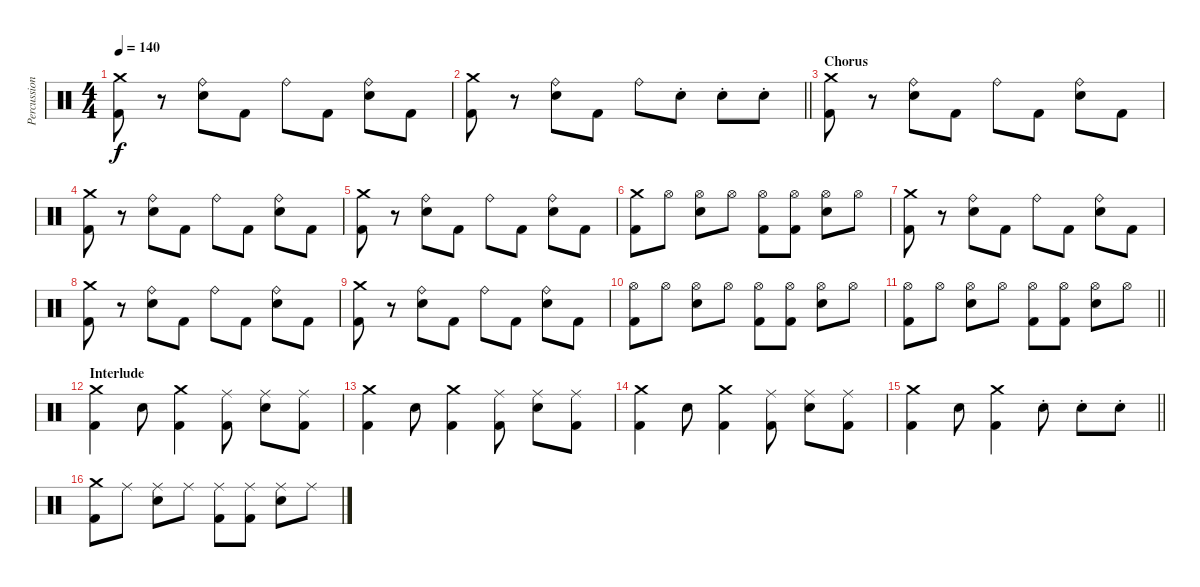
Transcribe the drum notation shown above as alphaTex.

\track ("Percussion" "Percussion") {instrument percussion}
\staff {score}
\articulation defaults
\ts (4 4)
\tempo 140
\clef neutral
\ks c
("Crash medium (hit)" "Kick (hit) 2").8{dy f} r.8 ("Ride (bell)" "Snare (hit) 2").8 "Kick (hit) 2".8 "Ride (bell)".8 "Kick (hit) 2".8 ("Ride (bell)" "Snare (hit) 2").8 "Kick (hit) 2".8 |
\barLineRight lightlight
("Crash medium (hit)" "Kick (hit) 2").8 r.8 ("Ride (bell)" "Snare (hit) 2").8 "Kick (hit) 2".8 "Ride (bell)".8 "Snare (hit) 2"{st}.8 "Snare (hit) 2"{st}.8 "Snare (hit) 2"{st}.8 |
\section ("" "Chorus")
("Crash medium (hit)" "Kick (hit) 2").8 r.8 ("Ride (bell)" "Snare (hit) 2").8 "Kick (hit) 2".8 "Ride (bell)".8 "Kick (hit) 2".8 ("Ride (bell)" "Snare (hit) 2").8 "Kick (hit) 2".8 |
("Crash medium (hit)" "Kick (hit) 2").8 r.8 ("Ride (bell)" "Snare (hit) 2").8 "Kick (hit) 2".8 "Ride (bell)".8 "Kick (hit) 2".8 ("Ride (bell)" "Snare (hit) 2").8 "Kick (hit) 2".8 |
("Crash medium (hit)" "Kick (hit) 2").8 r.8 ("Ride (bell)" "Snare (hit) 2").8 "Kick (hit) 2".8 "Ride (bell)".8 "Kick (hit) 2".8 ("Ride (bell)" "Snare (hit) 2").8 "Kick (hit) 2".8 |
("Crash medium (hit)" "Kick (hit) 2").8 "Hi-Hat (open)".8 ("Hi-Hat (open)" "Snare (hit) 2").8 "Hi-Hat (open)".8 ("Hi-Hat (open)" "Kick (hit) 2").8 ("Hi-Hat (open)" "Kick (hit) 2").8 ("Hi-Hat (open)" "Snare (hit) 2").8 "Hi-Hat (open)".8 |
("Crash medium (hit)" "Kick (hit) 2").8 r.8 ("Ride (bell)" "Snare (hit) 2").8 "Kick (hit) 2".8 "Ride (bell)".8 "Kick (hit) 2".8 ("Ride (bell)" "Snare (hit) 2").8 "Kick (hit) 2".8 |
("Crash medium (hit)" "Kick (hit) 2").8 r.8 ("Ride (bell)" "Snare (hit) 2").8 "Kick (hit) 2".8 "Ride (bell)".8 "Kick (hit) 2".8 ("Ride (bell)" "Snare (hit) 2").8 "Kick (hit) 2".8 |
("Crash medium (hit)" "Kick (hit) 2").8 r.8 ("Ride (bell)" "Snare (hit) 2").8 "Kick (hit) 2".8 "Ride (bell)".8 "Kick (hit) 2".8 ("Ride (bell)" "Snare (hit) 2").8 "Kick (hit) 2".8 |
("Hi-Hat (open)" "Kick (hit) 2").8 "Hi-Hat (open)".8 ("Hi-Hat (open)" "Snare (hit) 2").8 "Hi-Hat (open)".8 ("Hi-Hat (open)" "Kick (hit) 2").8 ("Hi-Hat (open)" "Kick (hit) 2").8 ("Hi-Hat (open)" "Snare (hit) 2").8 "Hi-Hat (open)".8 |
\barLineRight lightlight
("Hi-Hat (open)" "Kick (hit) 2").8 "Hi-Hat (open)".8 ("Hi-Hat (open)" "Snare (hit) 2").8 "Hi-Hat (open)".8 ("Hi-Hat (open)" "Kick (hit) 2").8 ("Hi-Hat (open)" "Kick (hit) 2").8 ("Hi-Hat (open)" "Snare (hit) 2").8 "Hi-Hat (open)".8 |
\section ("" "Interlude")
("Crash medium (hit)" "Kick (hit) 2").4 "Snare (hit) 2".8 ("Crash medium (hit)" "Kick (hit) 2").4 ("Ride (middle)" "Kick (hit) 2").8 ("Ride (middle)" "Snare (hit) 2").8 ("Ride (middle)" "Kick (hit) 2").8 |
("Crash medium (hit)" "Kick (hit) 2").4 "Snare (hit) 2".8 ("Crash medium (hit)" "Kick (hit) 2").4 ("Ride (middle)" "Kick (hit) 2").8 ("Ride (middle)" "Snare (hit) 2").8 ("Ride (middle)" "Kick (hit) 2").8 |
("Crash medium (hit)" "Kick (hit) 2").4 "Snare (hit) 2".8 ("Crash medium (hit)" "Kick (hit) 2").4 ("Ride (middle)" "Kick (hit) 2").8 ("Ride (middle)" "Snare (hit) 2").8 ("Ride (middle)" "Kick (hit) 2").8 |
\barLineRight lightlight
("Crash medium (hit)" "Kick (hit) 2").4 "Snare (hit) 2".8 ("Crash medium (hit)" "Kick (hit) 2").4 "Snare (hit) 2"{st}.8 "Snare (hit) 2"{st}.8 "Snare (hit) 2"{st}.8 |
("Crash medium (hit)" "Kick (hit) 2").8 "Ride (middle)".8 ("Ride (middle)" "Snare (hit) 2").8 "Ride (middle)".8 ("Ride (middle)" "Kick (hit) 2").8 ("Ride (middle)" "Kick (hit) 2").8 ("Ride (middle)" "Snare (hit) 2").8 "Ride (middle)".8
